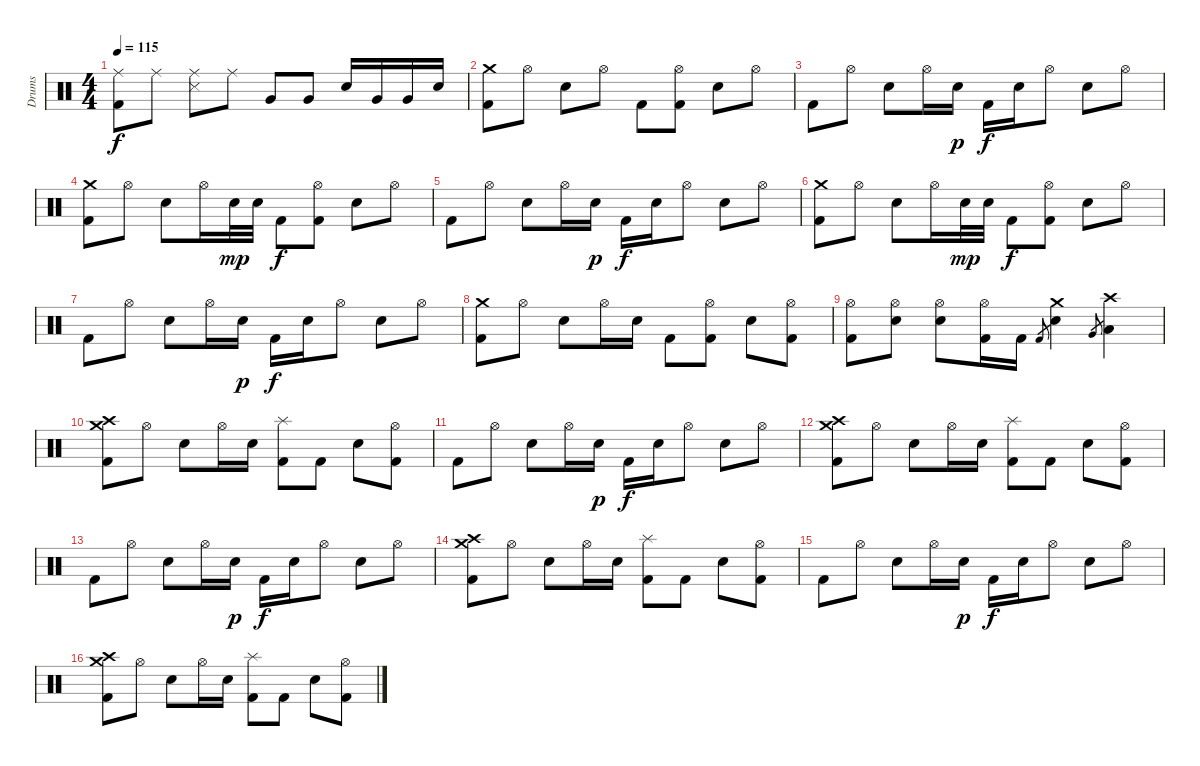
\track ("Drums" "Drums") {instrument percussion}
\staff {score}
\articulation defaults
\ts (4 4)
\tempo 115
\clef neutral
\ks c
("Ride (middle)" "Kick (hit) 2").8{dy f} "Ride (middle)".8 ("Ride (middle)" "Snare (side stick) 3").8 "Ride (middle)".8 "Very Low Tom (hit)".8 "Very Low Tom (hit)".8 "Snare (hit) 2".16 "Very Low Tom (hit)".16 "Very Low Tom (hit)".16 "Snare (hit) 2".16 |
("Crash medium (hit)" "Kick (hit) 2").8 "Hi-Hat (open)".8 "Snare (hit) 2".8 "Hi-Hat (open)".8 "Kick (hit) 2".8 ("Hi-Hat (open)" "Kick (hit) 2").8 "Snare (hit) 2".8 "Hi-Hat (open)".8 |
"Kick (hit) 2".8 "Hi-Hat (open)".8 "Snare (hit) 2".8 "Hi-Hat (open)".16 "Snare (hit) 2".16{dy p} "Kick (hit) 2".16{dy f} "Snare (hit) 2".16 "Hi-Hat (open)".8 "Snare (hit) 2".8 "Hi-Hat (open)".8 |
("Crash medium (hit)" "Kick (hit) 2").8 "Hi-Hat (open)".8 "Snare (hit) 2".8 "Hi-Hat (open)".16 "Snare (hit) 2".32{dy mp} "Snare (hit) 2".32 "Kick (hit) 2".8{dy f} ("Hi-Hat (open)" "Kick (hit) 2").8 "Snare (hit) 2".8 "Hi-Hat (open)".8 |
"Kick (hit) 2".8 "Hi-Hat (open)".8 "Snare (hit) 2".8 "Hi-Hat (open)".16 "Snare (hit) 2".16{dy p} "Kick (hit) 2".16{dy f} "Snare (hit) 2".16 "Hi-Hat (open)".8 "Snare (hit) 2".8 "Hi-Hat (open)".8 |
("Crash medium (hit)" "Kick (hit) 2").8 "Hi-Hat (open)".8 "Snare (hit) 2".8 "Hi-Hat (open)".16 "Snare (hit) 2".32{dy mp} "Snare (hit) 2".32 "Kick (hit) 2".8{dy f} ("Hi-Hat (open)" "Kick (hit) 2").8 "Snare (hit) 2".8 "Hi-Hat (open)".8 |
"Kick (hit) 2".8 "Hi-Hat (open)".8 "Snare (hit) 2".8 "Hi-Hat (open)".16 "Snare (hit) 2".16{dy p} "Kick (hit) 2".16{dy f} "Snare (hit) 2".16 "Hi-Hat (open)".8 "Snare (hit) 2".8 "Hi-Hat (open)".8 |
("Crash medium (hit)" "Kick (hit) 2").8 "Hi-Hat (open)".8 "Snare (hit) 2".8 "Hi-Hat (open)".16 "Snare (hit) 2".16 "Kick (hit) 2".8 ("Hi-Hat (open)" "Kick (hit) 2").8 "Snare (hit) 2".8 ("Hi-Hat (open)" "Kick (hit) 2").8 |
("Hi-Hat (open)" "Kick (hit) 2").8 ("Hi-Hat (open)" "Snare (hit) 2").8 ("Hi-Hat (open)" "Snare (hit) 2").8 ("Hi-Hat (open)" "Kick (hit) 2").16 "Kick (hit) 2".16 "Kick (hit) 2".8{gr} ("Crash medium (hit)" "Snare (hit) 2").4 "Very Low Tom (hit)".8{gr} ("Crash high (hit)" "Low Tom (hit)").4 |
("Crash medium (hit)" "Kick (hit) 2" "Crash high (hit)").8 "Hi-Hat (open)".8 "Snare (hit) 2".8 "Hi-Hat (open)".16 "Snare (hit) 2".16 ("Splash (hit)" "Kick (hit) 2").8 "Kick (hit) 2".8 "Snare (hit) 2".8 ("Hi-Hat (open)" "Kick (hit) 2").8 |
"Kick (hit) 2".8 "Hi-Hat (open)".8 "Snare (hit) 2".8 "Hi-Hat (open)".16 "Snare (hit) 2".16{dy p} "Kick (hit) 2".16{dy f} "Snare (hit) 2".16 "Hi-Hat (open)".8 "Snare (hit) 2".8 "Hi-Hat (open)".8 |
("Crash medium (hit)" "Kick (hit) 2" "Crash high (hit)").8 "Hi-Hat (open)".8 "Snare (hit) 2".8 "Hi-Hat (open)".16 "Snare (hit) 2".16 ("Splash (hit)" "Kick (hit) 2").8 "Kick (hit) 2".8 "Snare (hit) 2".8 ("Hi-Hat (open)" "Kick (hit) 2").8 |
"Kick (hit) 2".8 "Hi-Hat (open)".8 "Snare (hit) 2".8 "Hi-Hat (open)".16 "Snare (hit) 2".16{dy p} "Kick (hit) 2".16{dy f} "Snare (hit) 2".16 "Hi-Hat (open)".8 "Snare (hit) 2".8 "Hi-Hat (open)".8 |
("Crash medium (hit)" "Kick (hit) 2" "Crash high (hit)").8 "Hi-Hat (open)".8 "Snare (hit) 2".8 "Hi-Hat (open)".16 "Snare (hit) 2".16 ("Splash (hit)" "Kick (hit) 2").8 "Kick (hit) 2".8 "Snare (hit) 2".8 ("Hi-Hat (open)" "Kick (hit) 2").8 |
"Kick (hit) 2".8 "Hi-Hat (open)".8 "Snare (hit) 2".8 "Hi-Hat (open)".16 "Snare (hit) 2".16{dy p} "Kick (hit) 2".16{dy f} "Snare (hit) 2".16 "Hi-Hat (open)".8 "Snare (hit) 2".8 "Hi-Hat (open)".8 |
("Crash medium (hit)" "Kick (hit) 2" "Crash high (hit)").8 "Hi-Hat (open)".8 "Snare (hit) 2".8 "Hi-Hat (open)".16 "Snare (hit) 2".16 ("Splash (hit)" "Kick (hit) 2").8 "Kick (hit) 2".8 "Snare (hit) 2".8 ("Hi-Hat (open)" "Kick (hit) 2").8
